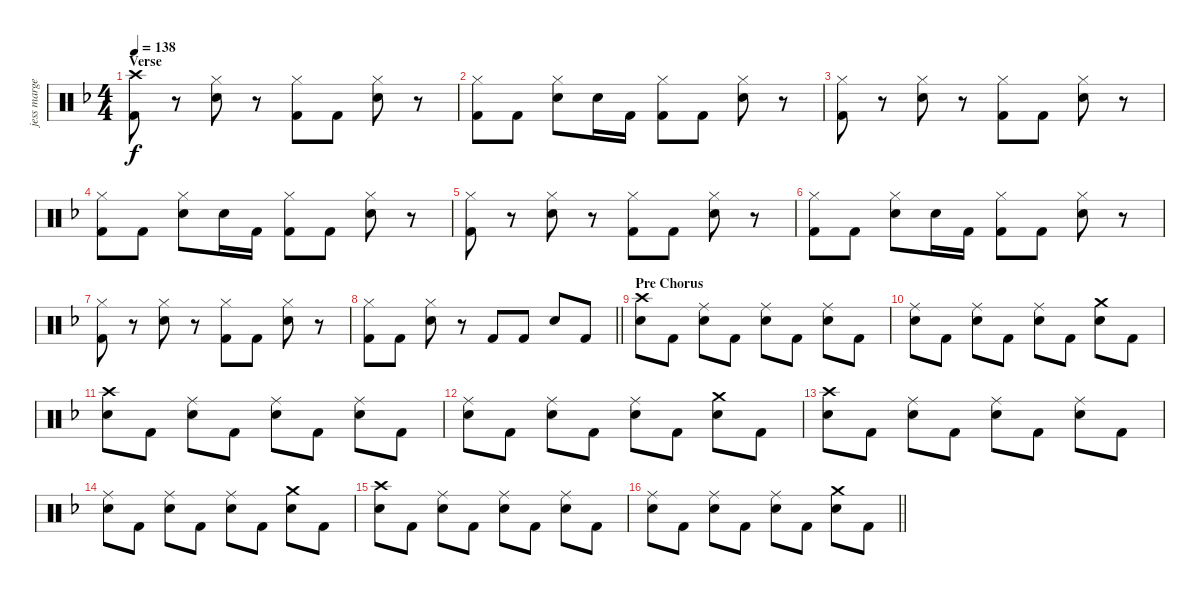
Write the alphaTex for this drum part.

\track ("jess margera" "jess marge") {instrument percussion}
\staff {score}
\articulation defaults
\ts (4 4)
\section ("" "Verse")
\tempo 138
\clef neutral
\ks f
("Crash high (hit)" "Kick (hit) 2").8{dy f} r.8 ("Hi-Hat (closed)" "Electric Snare (hit)").8 r.8 ("Hi-Hat (closed)" "Kick (hit) 2").8 "Kick (hit) 2".8 ("Hi-Hat (closed)" "Electric Snare (hit)").8 r.8 |
("Hi-Hat (closed)" "Kick (hit) 2").8 "Kick (hit) 2".8 ("Hi-Hat (closed)" "Electric Snare (hit)").8 "Electric Snare (hit)".16 "Kick (hit) 2".16 ("Hi-Hat (closed)" "Kick (hit) 2").8 "Kick (hit) 2".8 ("Hi-Hat (closed)" "Electric Snare (hit)").8 r.8 |
("Hi-Hat (closed)" "Kick (hit) 2").8 r.8 ("Hi-Hat (closed)" "Electric Snare (hit)").8 r.8 ("Hi-Hat (closed)" "Kick (hit) 2").8 "Kick (hit) 2".8 ("Hi-Hat (closed)" "Electric Snare (hit)").8 r.8 |
("Hi-Hat (closed)" "Kick (hit) 2").8 "Kick (hit) 2".8 ("Hi-Hat (closed)" "Electric Snare (hit)").8 "Electric Snare (hit)".16 "Kick (hit) 2".16 ("Hi-Hat (closed)" "Kick (hit) 2").8 "Kick (hit) 2".8 ("Hi-Hat (closed)" "Electric Snare (hit)").8 r.8 |
("Hi-Hat (closed)" "Kick (hit) 2").8 r.8 ("Hi-Hat (closed)" "Electric Snare (hit)").8 r.8 ("Hi-Hat (closed)" "Kick (hit) 2").8 "Kick (hit) 2".8 ("Hi-Hat (closed)" "Electric Snare (hit)").8 r.8 |
("Hi-Hat (closed)" "Kick (hit) 2").8 "Kick (hit) 2".8 ("Hi-Hat (closed)" "Electric Snare (hit)").8 "Electric Snare (hit)".16 "Kick (hit) 2".16 ("Hi-Hat (closed)" "Kick (hit) 2").8 "Kick (hit) 2".8 ("Hi-Hat (closed)" "Electric Snare (hit)").8 r.8 |
("Hi-Hat (closed)" "Kick (hit) 2").8 r.8 ("Hi-Hat (closed)" "Electric Snare (hit)").8 r.8 ("Hi-Hat (closed)" "Kick (hit) 2").8 "Kick (hit) 2".8 ("Hi-Hat (closed)" "Electric Snare (hit)").8 r.8 |
\barLineRight lightlight
("Hi-Hat (closed)" "Kick (hit) 2").8 "Kick (hit) 2".8 ("Hi-Hat (closed)" "Electric Snare (hit)").8 r.8 "Kick (hit) 2".8 "Kick (hit) 2".8 "Electric Snare (hit)".8 "Kick (hit) 2".8 |
\section ("" "Pre Chorus")
("Crash high (hit)" "Electric Snare (hit)").8 "Kick (hit) 2".8 ("Ride (middle)" "Electric Snare (hit)").8 "Kick (hit) 2".8 ("Ride (middle)" "Electric Snare (hit)").8 "Kick (hit) 2".8 ("Ride (middle)" "Electric Snare (hit)").8 "Kick (hit) 2".8 |
("Ride (middle)" "Electric Snare (hit)").8 "Kick (hit) 2".8 ("Ride (middle)" "Electric Snare (hit)").8 "Kick (hit) 2".8 ("Ride (middle)" "Electric Snare (hit)").8 "Kick (hit) 2".8 ("Crash medium (hit)" "Electric Snare (hit)").8 "Kick (hit) 2".8 |
("Crash high (hit)" "Electric Snare (hit)").8 "Kick (hit) 2".8 ("Ride (middle)" "Electric Snare (hit)").8 "Kick (hit) 2".8 ("Ride (middle)" "Electric Snare (hit)").8 "Kick (hit) 2".8 ("Ride (middle)" "Electric Snare (hit)").8 "Kick (hit) 2".8 |
("Ride (middle)" "Electric Snare (hit)").8 "Kick (hit) 2".8 ("Ride (middle)" "Electric Snare (hit)").8 "Kick (hit) 2".8 ("Ride (middle)" "Electric Snare (hit)").8 "Kick (hit) 2".8 ("Crash medium (hit)" "Electric Snare (hit)").8 "Kick (hit) 2".8 |
("Crash high (hit)" "Electric Snare (hit)").8 "Kick (hit) 2".8 ("Ride (middle)" "Electric Snare (hit)").8 "Kick (hit) 2".8 ("Ride (middle)" "Electric Snare (hit)").8 "Kick (hit) 2".8 ("Ride (middle)" "Electric Snare (hit)").8 "Kick (hit) 2".8 |
("Ride (middle)" "Electric Snare (hit)").8 "Kick (hit) 2".8 ("Ride (middle)" "Electric Snare (hit)").8 "Kick (hit) 2".8 ("Ride (middle)" "Electric Snare (hit)").8 "Kick (hit) 2".8 ("Crash medium (hit)" "Electric Snare (hit)").8 "Kick (hit) 2".8 |
("Crash high (hit)" "Electric Snare (hit)").8 "Kick (hit) 2".8 ("Ride (middle)" "Electric Snare (hit)").8 "Kick (hit) 2".8 ("Ride (middle)" "Electric Snare (hit)").8 "Kick (hit) 2".8 ("Ride (middle)" "Electric Snare (hit)").8 "Kick (hit) 2".8 |
\barLineRight lightlight
("Ride (middle)" "Electric Snare (hit)").8 "Kick (hit) 2".8 ("Ride (middle)" "Electric Snare (hit)").8 "Kick (hit) 2".8 ("Ride (middle)" "Electric Snare (hit)").8 "Kick (hit) 2".8 ("Crash medium (hit)" "Electric Snare (hit)").8 "Kick (hit) 2".8
